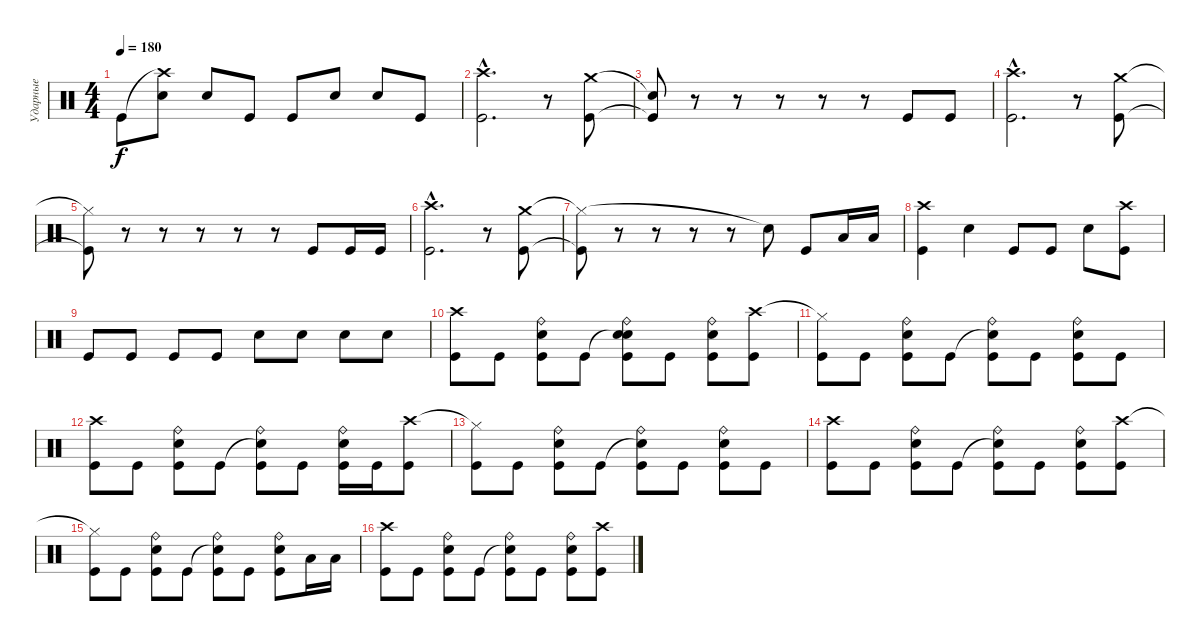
\track ("Ударные" "Ударные") {instrument percussion}
\staff {score}
\articulation defaults
\ts (4 4)
\tempo 180
\clef neutral
\ks c "Kick (hit)".8{dy f}
("Crash high (hit)"{t} "Electric Snare (hit)").8 "Electric Snare (hit)".8 "Kick (hit)".8 "Kick (hit)".8 "Electric Snare (hit)".8 "Electric Snare (hit)".8 "Kick (hit)".8 |
("Crash high (hit)"{hac} "Kick (hit)"{hac}).2{d} r.8 ("Crash medium (hit)" "Kick (hit)").8 |
("Snare (hit)"{t} "Kick (hit)"{t}).8 r.8 r.8 r.8 r.8 r.8 "Kick (hit)".8 "Kick (hit)".8 |
("Crash high (hit)"{hac} "Kick (hit)"{hac}).2{d} r.8 ("Crash medium (hit)" "Kick (hit)").8 |
("Hi-Hat (closed)"{t} "Kick (hit)"{t}).8 r.8 r.8 r.8 r.8 r.8 "Kick (hit)".8 "Kick (hit)".16 "Kick (hit)".16 |
("Crash high (hit)"{hac} "Kick (hit)"{hac}).2{d} r.8 ("Crash medium (hit)" "Kick (hit)").8 |
("Hi-Hat (closed)"{t} "Kick (hit)"{t}).8 r.8 r.8 r.8 r.8 "Snare (hit)"{t}.8 "Kick (hit)".8 "Low Tom (hit)".16 "Low Tom (hit)".16 |
("Crash high (hit)" "Kick (hit)").4 "Electric Snare (hit)".4 "Kick (hit)".8 "Kick (hit)".8 "Electric Snare (hit)".8 ("Crash high (hit)" "Kick (hit)").8 |
"Kick (hit)".8 "Kick (hit)".8 "Kick (hit)".8 "Kick (hit)".8 "Electric Snare (hit)".8 "Electric Snare (hit)".8 "Electric Snare (hit)".8 "Electric Snare (hit)".8 |
("Crash high (hit)" "Kick (hit)").8 "Kick (hit)".8 ("Ride (bell)" "Electric Snare (hit)" "Kick (hit)").8 "Kick (hit)".8 ("Snare (hit)"{t} "Ride (bell)" "Electric Snare (hit)" "Kick (hit)").8 "Kick (hit)".8 ("Ride (bell)" "Electric Snare (hit)" "Kick (hit)").8 ("Crash high (hit)" "Kick (hit)").8 |
("Hi-Hat (closed)"{t} "Kick (hit)").8 "Kick (hit)".8 ("Ride (bell)" "Electric Snare (hit)" "Kick (hit)").8 "Kick (hit)".8 ("Snare (hit)"{t} "Ride (bell)" "Kick (hit)").8 "Kick (hit)".8 ("Ride (bell)" "Electric Snare (hit)" "Kick (hit)").8 "Kick (hit)".8 |
("Crash high (hit)" "Kick (hit)").8 "Kick (hit)".8 ("Ride (bell)" "Electric Snare (hit)" "Kick (hit)").8 "Kick (hit)".8 ("Snare (hit)"{t} "Ride (bell)" "Kick (hit)").8 "Kick (hit)".8 ("Ride (bell)" "Electric Snare (hit)" "Kick (hit)").16 "Kick (hit)".16 ("Crash high (hit)" "Kick (hit)").8 |
("Hi-Hat (closed)"{t} "Kick (hit)").8 "Kick (hit)".8 ("Ride (bell)" "Electric Snare (hit)" "Kick (hit)").8 "Kick (hit)".8 ("Snare (hit)"{t} "Ride (bell)" "Kick (hit)").8 "Kick (hit)".8 ("Ride (bell)" "Electric Snare (hit)" "Kick (hit)").8 "Kick (hit)".8 |
("Crash high (hit)" "Kick (hit)").8 "Kick (hit)".8 ("Ride (bell)" "Electric Snare (hit)" "Kick (hit)").8 "Kick (hit)".8 ("Snare (hit)"{t} "Ride (bell)" "Kick (hit)").8 "Kick (hit)".8 ("Ride (bell)" "Electric Snare (hit)" "Kick (hit)").8 ("Crash high (hit)" "Kick (hit)").8 |
("Hi-Hat (closed)"{t} "Kick (hit)").8 "Kick (hit)".8 ("Ride (bell)" "Electric Snare (hit)" "Kick (hit)").8 "Kick (hit)".8 ("Snare (hit)"{t} "Ride (bell)" "Kick (hit)").8 "Kick (hit)".8 ("Ride (bell)" "Electric Snare (hit)" "Kick (hit)").8 "Low Tom (hit)".16 "Low Tom (hit)".16 |
("Crash high (hit)" "Kick (hit)").8 "Kick (hit)".8 ("Ride (bell)" "Electric Snare (hit)" "Kick (hit)").8 "Kick (hit)".8 ("Snare (hit)"{t} "Ride (bell)" "Kick (hit)").8 "Kick (hit)".8 ("Ride (bell)" "Electric Snare (hit)" "Kick (hit)").8 ("Crash high (hit)" "Kick (hit)").8
